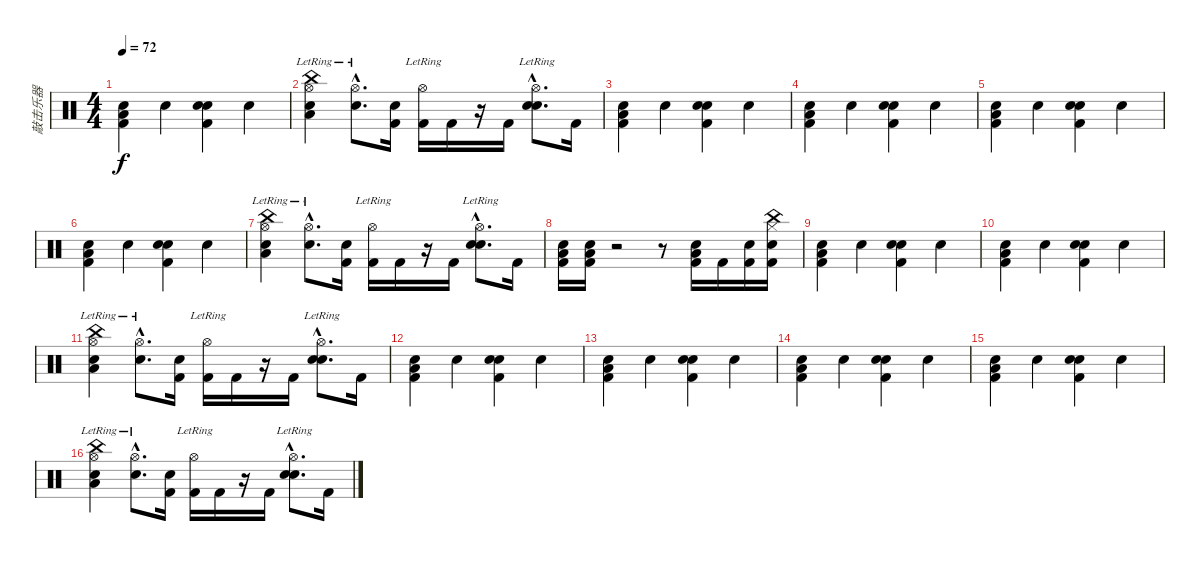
\track ("敲击乐器" "敲击乐器") {instrument percussion}
\staff {score}
\articulation defaults
\ts (4 4)
\tempo 72
\clef neutral
\ks c
("Snare (hit) 2" "Kick (hit) 2" "Low Floor Tom (hit)").4{dy f} "Electric Snare (hit)".4 ("Snare (hit) 2" "Kick (hit) 2" "Hand Clap (hit)").4 "Electric Snare (hit)".4 |
("China (hit)" "Snare (hit) 2" "Low Floor Tom (hit)" "Hi-Hat (open)"{lr}).4 ("Electric Snare (hit)"{hac} "Hi-Hat (open)"{hac lr}).8{d} ("Kick (hit) 2" "Snare (hit) 2").16 ("Kick (hit) 2" "Hi-Hat (open)"{lr}).16 "Kick (hit) 2".16 r.16 "Kick (hit) 2".16 ("Electric Snare (hit)"{hac} "Hand Clap (hit)"{hac} "Hi-Hat (open)"{hac lr}).8{d} "Kick (hit) 2".16 |
("Snare (hit) 2" "Kick (hit) 2" "Low Floor Tom (hit)").4 "Electric Snare (hit)".4 ("Snare (hit) 2" "Kick (hit) 2" "Hand Clap (hit)").4 "Electric Snare (hit)".4 |
("Snare (hit) 2" "Kick (hit) 2" "Low Floor Tom (hit)").4 "Electric Snare (hit)".4 ("Snare (hit) 2" "Kick (hit) 2" "Hand Clap (hit)").4 "Electric Snare (hit)".4 |
("Snare (hit) 2" "Kick (hit) 2" "Low Floor Tom (hit)").4 "Electric Snare (hit)".4 ("Snare (hit) 2" "Kick (hit) 2" "Hand Clap (hit)").4 "Electric Snare (hit)".4 |
("Snare (hit) 2" "Kick (hit) 2" "Low Floor Tom (hit)").4 "Electric Snare (hit)".4 ("Snare (hit) 2" "Kick (hit) 2" "Hand Clap (hit)").4 "Electric Snare (hit)".4 |
("China (hit)" "Snare (hit) 2" "Low Floor Tom (hit)" "Hi-Hat (open)"{lr}).4 ("Electric Snare (hit)"{hac} "Hi-Hat (open)"{hac lr}).8{d} ("Kick (hit) 2" "Snare (hit) 2").16 ("Kick (hit) 2" "Hi-Hat (open)"{lr}).16 "Kick (hit) 2".16 r.16 "Kick (hit) 2".16 ("Electric Snare (hit)"{hac} "Hand Clap (hit)"{hac} "Hi-Hat (open)"{hac lr}).8{d} "Kick (hit) 2".16 |
("Snare (hit) 2" "Kick (hit) 2" "Low Floor Tom (hit)").16 ("Snare (hit) 2" "Kick (hit) 2" "Low Floor Tom (hit)").16 r.2 r.8 ("Snare (hit) 2" "Low Floor Tom (hit)" "Kick (hit) 2").16 "Kick (hit) 2".16 ("Snare (hit) 2" "Kick (hit) 2").16 ("Snare (hit) 2" "Hi-Hat (closed)" "Kick (hit) 2" "China (hit)").16 |
("Snare (hit) 2" "Kick (hit) 2" "Low Floor Tom (hit)").4 "Electric Snare (hit)".4 ("Snare (hit) 2" "Kick (hit) 2" "Hand Clap (hit)").4 "Electric Snare (hit)".4 |
("Snare (hit) 2" "Kick (hit) 2" "Low Floor Tom (hit)").4 "Electric Snare (hit)".4 ("Snare (hit) 2" "Kick (hit) 2" "Hand Clap (hit)").4 "Electric Snare (hit)".4 |
("China (hit)" "Snare (hit) 2" "Low Floor Tom (hit)" "Hi-Hat (open)"{lr}).4 ("Electric Snare (hit)"{hac} "Hi-Hat (open)"{hac lr}).8{d} ("Kick (hit) 2" "Snare (hit) 2").16 ("Kick (hit) 2" "Hi-Hat (open)"{lr}).16 "Kick (hit) 2".16 r.16 "Kick (hit) 2".16 ("Electric Snare (hit)"{hac} "Hand Clap (hit)"{hac} "Hi-Hat (open)"{hac lr}).8{d} "Kick (hit) 2".16 |
("Snare (hit) 2" "Kick (hit) 2" "Low Floor Tom (hit)").4 "Electric Snare (hit)".4 ("Snare (hit) 2" "Kick (hit) 2" "Hand Clap (hit)").4 "Electric Snare (hit)".4 |
("Snare (hit) 2" "Kick (hit) 2" "Low Floor Tom (hit)").4 "Electric Snare (hit)".4 ("Snare (hit) 2" "Kick (hit) 2" "Hand Clap (hit)").4 "Electric Snare (hit)".4 |
("Snare (hit) 2" "Kick (hit) 2" "Low Floor Tom (hit)").4 "Electric Snare (hit)".4 ("Snare (hit) 2" "Kick (hit) 2" "Hand Clap (hit)").4 "Electric Snare (hit)".4 |
("Snare (hit) 2" "Kick (hit) 2" "Low Floor Tom (hit)").4 "Electric Snare (hit)".4 ("Snare (hit) 2" "Kick (hit) 2" "Hand Clap (hit)").4 "Electric Snare (hit)".4 |
("China (hit)" "Snare (hit) 2" "Low Floor Tom (hit)" "Hi-Hat (open)"{lr}).4 ("Electric Snare (hit)"{hac} "Hi-Hat (open)"{hac lr}).8{d} ("Kick (hit) 2" "Snare (hit) 2").16 ("Kick (hit) 2" "Hi-Hat (open)"{lr}).16 "Kick (hit) 2".16 r.16 "Kick (hit) 2".16 ("Electric Snare (hit)"{hac} "Hand Clap (hit)"{hac} "Hi-Hat (open)"{hac lr}).8{d} "Kick (hit) 2".16
